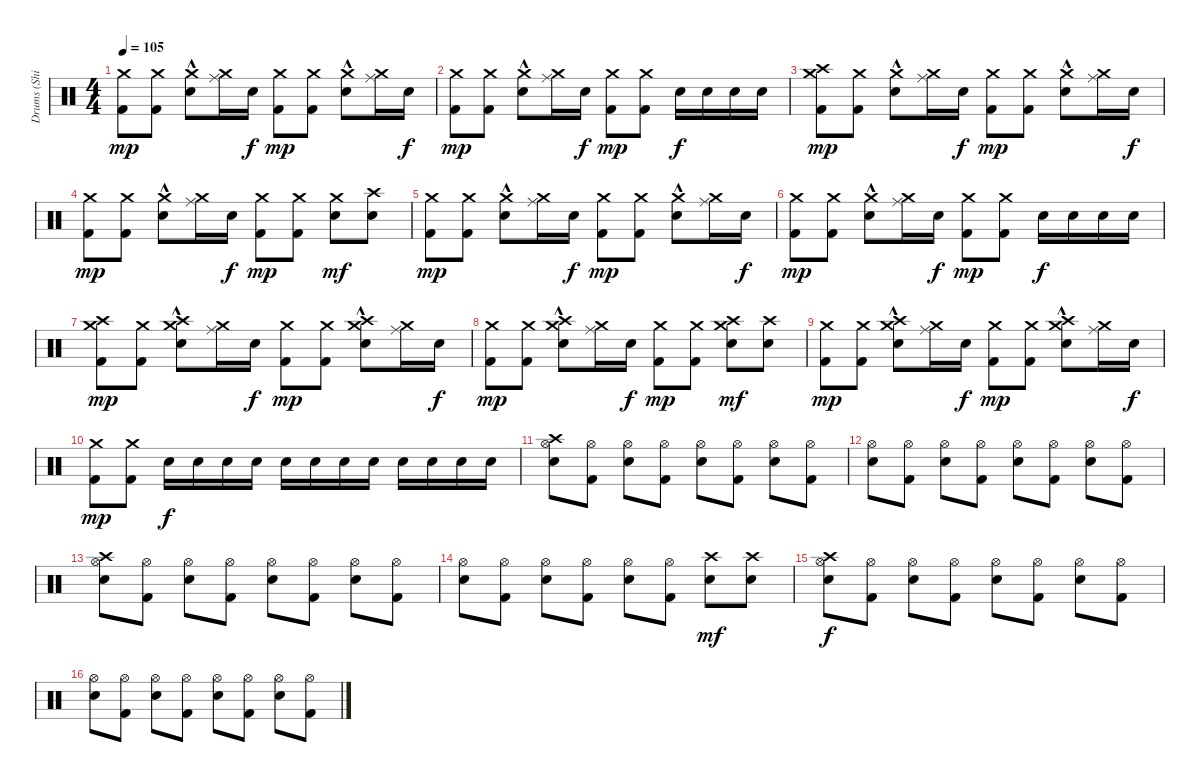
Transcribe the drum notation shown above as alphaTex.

\track ("Drums (Shinya)" "Drums (Shi") {instrument percussion}
\staff {score}
\articulation defaults
\ts (4 4)
\tempo 105
\clef neutral
\ks c
("Crash medium (hit)" "Kick (hit) 2").8{dy mp} ("Crash medium (hit)" "Kick (hit) 2").8 ("Crash medium (hit)" "Electric Snare (hit)"{hac}).8 ("Crash medium (hit)" "Ride (middle)").16 "Electric Snare (hit)".16{dy f} ("Crash medium (hit)" "Kick (hit) 2").8{dy mp} ("Crash medium (hit)" "Kick (hit) 2").8 ("Crash medium (hit)" "Electric Snare (hit)"{hac}).8 ("Ride (middle)" "Crash medium (hit)").16 "Electric Snare (hit)".16{dy f} |
("Kick (hit) 2" "Crash medium (hit)").8{dy mp} ("Kick (hit) 2" "Crash medium (hit)").8 ("Electric Snare (hit)"{hac} "Crash medium (hit)").8 ("Crash medium (hit)" "Ride (middle)").16 "Electric Snare (hit)".16{dy f} ("Kick (hit) 2" "Crash medium (hit)").8{dy mp} ("Kick (hit) 2" "Crash medium (hit)").8 "Electric Snare (hit)".16{dy f} "Electric Snare (hit)".16 "Electric Snare (hit)".16 "Electric Snare (hit)".16 |
("Crash medium (hit)" "Crash high (hit)" "Kick (hit) 2").8{dy mp} ("Crash medium (hit)" "Kick (hit) 2").8 ("Crash medium (hit)" "Electric Snare (hit)"{hac}).8 ("Crash medium (hit)" "Ride (middle)").16 "Electric Snare (hit)".16{dy f} ("Crash medium (hit)" "Kick (hit) 2").8{dy mp} ("Crash medium (hit)" "Kick (hit) 2").8 ("Crash medium (hit)" "Electric Snare (hit)"{hac}).8 ("Ride (middle)" "Crash medium (hit)").16 "Electric Snare (hit)".16{dy f} |
("Kick (hit) 2" "Crash medium (hit)").8{dy mp} ("Kick (hit) 2" "Crash medium (hit)").8 ("Electric Snare (hit)"{hac} "Crash medium (hit)").8 ("Crash medium (hit)" "Ride (middle)").16 "Electric Snare (hit)".16{dy f} ("Kick (hit) 2" "Crash medium (hit)").8{dy mp} ("Kick (hit) 2" "Crash medium (hit)").8 ("Electric Snare (hit)" "Crash medium (hit)").8{dy mf} ("Electric Snare (hit)" "Crash high (hit)").8 |
("Crash medium (hit)" "Kick (hit) 2").8{dy mp} ("Crash medium (hit)" "Kick (hit) 2").8 ("Crash medium (hit)" "Electric Snare (hit)"{hac}).8 ("Crash medium (hit)" "Ride (middle)").16 "Electric Snare (hit)".16{dy f} ("Crash medium (hit)" "Kick (hit) 2").8{dy mp} ("Crash medium (hit)" "Kick (hit) 2").8 ("Crash medium (hit)" "Electric Snare (hit)"{hac}).8 ("Ride (middle)" "Crash medium (hit)").16 "Electric Snare (hit)".16{dy f} |
("Kick (hit) 2" "Crash medium (hit)").8{dy mp} ("Kick (hit) 2" "Crash medium (hit)").8 ("Electric Snare (hit)"{hac} "Crash medium (hit)").8 ("Crash medium (hit)" "Ride (middle)").16 "Electric Snare (hit)".16{dy f} ("Kick (hit) 2" "Crash medium (hit)").8{dy mp} ("Kick (hit) 2" "Crash medium (hit)").8 "Electric Snare (hit)".16{dy f} "Electric Snare (hit)".16 "Electric Snare (hit)".16 "Electric Snare (hit)".16 |
("Crash medium (hit)" "Crash high (hit)" "Kick (hit) 2").8{dy mp} ("Crash medium (hit)" "Kick (hit) 2").8 ("Crash high (hit)" "Crash medium (hit)" "Electric Snare (hit)"{hac}).8 ("Crash medium (hit)" "Ride (middle)").16 "Electric Snare (hit)".16{dy f} ("Crash medium (hit)" "Kick (hit) 2").8{dy mp} ("Crash medium (hit)" "Kick (hit) 2").8 ("Crash high (hit)" "Crash medium (hit)" "Electric Snare (hit)"{hac}).8 ("Ride (middle)" "Crash medium (hit)").16 "Electric Snare (hit)".16{dy f} |
("Kick (hit) 2" "Crash medium (hit)").8{dy mp} ("Kick (hit) 2" "Crash medium (hit)").8 ("Crash high (hit)" "Electric Snare (hit)"{hac} "Crash medium (hit)").8 ("Crash medium (hit)" "Ride (middle)").16 "Electric Snare (hit)".16{dy f} ("Kick (hit) 2" "Crash medium (hit)").8{dy mp} ("Kick (hit) 2" "Crash medium (hit)").8 ("Crash high (hit)" "Electric Snare (hit)" "Crash medium (hit)").8{dy mf} ("Electric Snare (hit)" "Crash high (hit)").8 |
("Crash medium (hit)" "Kick (hit) 2").8{dy mp} ("Crash medium (hit)" "Kick (hit) 2").8 ("Crash high (hit)" "Crash medium (hit)" "Electric Snare (hit)"{hac}).8 ("Crash medium (hit)" "Ride (middle)").16 "Electric Snare (hit)".16{dy f} ("Crash medium (hit)" "Kick (hit) 2").8{dy mp} ("Crash medium (hit)" "Kick (hit) 2").8 ("Crash high (hit)" "Crash medium (hit)" "Electric Snare (hit)"{hac}).8 ("Ride (middle)" "Crash medium (hit)").16 "Electric Snare (hit)".16{dy f} |
("Kick (hit) 2" "Crash medium (hit)").8{dy mp} ("Kick (hit) 2" "Crash medium (hit)").8 "Electric Snare (hit)".16{dy f} "Electric Snare (hit)".16 "Electric Snare (hit)".16 "Electric Snare (hit)".16 "Electric Snare (hit)".16 "Electric Snare (hit)".16 "Electric Snare (hit)".16 "Electric Snare (hit)".16 "Electric Snare (hit)".16 "Electric Snare (hit)".16 "Electric Snare (hit)".16 "Electric Snare (hit)".16 |
("Hi-Hat (open)" "Crash high (hit)" "Electric Snare (hit)").8 ("Hi-Hat (open)" "Kick (hit) 2").8 ("Hi-Hat (open)" "Electric Snare (hit)").8 ("Hi-Hat (open)" "Kick (hit) 2").8 ("Hi-Hat (open)" "Electric Snare (hit)").8 ("Hi-Hat (open)" "Kick (hit) 2").8 ("Hi-Hat (open)" "Electric Snare (hit)").8 ("Hi-Hat (open)" "Kick (hit) 2").8 |
("Hi-Hat (open)" "Electric Snare (hit)").8 ("Hi-Hat (open)" "Kick (hit) 2").8 ("Hi-Hat (open)" "Electric Snare (hit)").8 ("Hi-Hat (open)" "Kick (hit) 2").8 ("Hi-Hat (open)" "Electric Snare (hit)").8 ("Hi-Hat (open)" "Kick (hit) 2").8 ("Hi-Hat (open)" "Electric Snare (hit)").8 ("Hi-Hat (open)" "Kick (hit) 2").8 |
("Hi-Hat (open)" "Crash high (hit)" "Electric Snare (hit)").8 ("Hi-Hat (open)" "Kick (hit) 2").8 ("Hi-Hat (open)" "Electric Snare (hit)").8 ("Hi-Hat (open)" "Kick (hit) 2").8 ("Hi-Hat (open)" "Electric Snare (hit)").8 ("Hi-Hat (open)" "Kick (hit) 2").8 ("Hi-Hat (open)" "Electric Snare (hit)").8 ("Hi-Hat (open)" "Kick (hit) 2").8 |
("Hi-Hat (open)" "Electric Snare (hit)").8 ("Hi-Hat (open)" "Kick (hit) 2").8 ("Hi-Hat (open)" "Electric Snare (hit)").8 ("Hi-Hat (open)" "Kick (hit) 2").8 ("Hi-Hat (open)" "Electric Snare (hit)").8 ("Hi-Hat (open)" "Kick (hit) 2").8 ("Electric Snare (hit)" "Crash high (hit)").8{dy mf} ("Electric Snare (hit)" "Crash high (hit)").8 |
("Hi-Hat (open)" "Electric Snare (hit)" "Crash high (hit)").8{dy f} ("Kick (hit) 2" "Hi-Hat (open)").8 ("Electric Snare (hit)" "Hi-Hat (open)").8 ("Kick (hit) 2" "Hi-Hat (open)").8 ("Electric Snare (hit)" "Hi-Hat (open)").8 ("Hi-Hat (open)" "Kick (hit) 2").8 ("Hi-Hat (open)" "Electric Snare (hit)").8 ("Kick (hit) 2" "Hi-Hat (open)").8 |
("Electric Snare (hit)" "Hi-Hat (open)").8 ("Kick (hit) 2" "Hi-Hat (open)").8 ("Hi-Hat (open)" "Electric Snare (hit)").8 ("Hi-Hat (open)" "Kick (hit) 2").8 ("Electric Snare (hit)" "Hi-Hat (open)").8 ("Hi-Hat (open)" "Kick (hit) 2").8 ("Hi-Hat (open)" "Electric Snare (hit)").8 ("Kick (hit) 2" "Hi-Hat (open)").8
